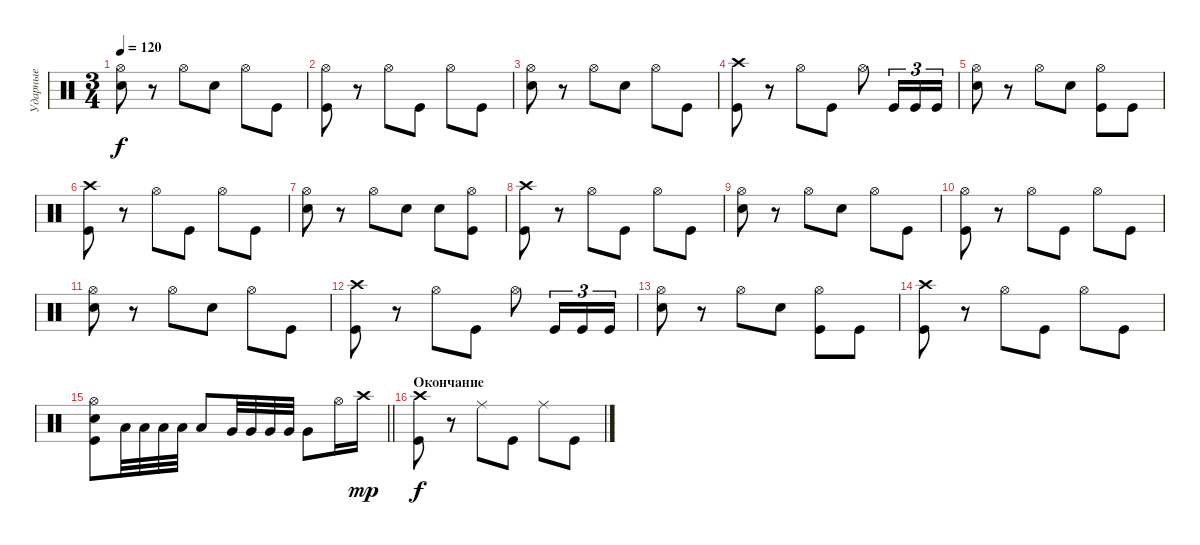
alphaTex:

\track ("Ударные" "Ударные") {instrument percussion}
\staff {score}
\articulation defaults
\ts (3 4)
\tempo 120
\clef neutral
\ks c
("Hi-Hat (open)" "Snare (hit) 2").8{dy f} r.8 "Hi-Hat (open)".8 "Snare (hit) 2".8 "Hi-Hat (open)".8 "Kick (hit)".8 |
("Hi-Hat (open)" "Kick (hit)").8 r.8 "Hi-Hat (open)".8 "Kick (hit)".8 "Hi-Hat (open)".8 "Kick (hit)".8 |
("Hi-Hat (open)" "Snare (hit) 2").8 r.8 "Hi-Hat (open)".8 "Snare (hit) 2".8 "Hi-Hat (open)".8 "Kick (hit)".8 |
("Crash high (hit)" "Kick (hit)").8 r.8 "Hi-Hat (open)".8 "Kick (hit)".8 "Hi-Hat (open)".8 "Kick (hit)".16{tu (3 2)} "Kick (hit)".16{tu (3 2)} "Kick (hit)".16{tu (3 2)} |
("Hi-Hat (open)" "Snare (hit) 2").8 r.8 "Hi-Hat (open)".8 "Snare (hit) 2".8 ("Hi-Hat (open)" "Kick (hit)").8 "Kick (hit)".8 |
("Crash high (hit)" "Kick (hit)").8 r.8 "Hi-Hat (open)".8 "Kick (hit)".8 "Hi-Hat (open)".8 "Kick (hit)".8 |
("Hi-Hat (open)" "Snare (hit) 2").8 r.8 "Hi-Hat (open)".8 "Snare (hit) 2".8 "Snare (hit) 2".8 ("Hi-Hat (open)" "Kick (hit)").8 |
("Crash high (hit)" "Kick (hit)").8 r.8 "Hi-Hat (open)".8 "Kick (hit)".8 "Hi-Hat (open)".8 "Kick (hit)".8 |
("Hi-Hat (open)" "Snare (hit) 2").8 r.8 "Hi-Hat (open)".8 "Snare (hit) 2".8 "Hi-Hat (open)".8 "Kick (hit)".8 |
("Hi-Hat (open)" "Kick (hit)").8 r.8 "Hi-Hat (open)".8 "Kick (hit)".8 "Hi-Hat (open)".8 "Kick (hit)".8 |
("Hi-Hat (open)" "Snare (hit) 2").8 r.8 "Hi-Hat (open)".8 "Snare (hit) 2".8 "Hi-Hat (open)".8 "Kick (hit)".8 |
("Crash high (hit)" "Kick (hit)").8 r.8 "Hi-Hat (open)".8 "Kick (hit)".8 "Hi-Hat (open)".8 "Kick (hit)".16{tu (3 2)} "Kick (hit)".16{tu (3 2)} "Kick (hit)".16{tu (3 2)} |
("Hi-Hat (open)" "Snare (hit) 2").8 r.8 "Hi-Hat (open)".8 "Snare (hit) 2".8 ("Hi-Hat (open)" "Kick (hit)").8 "Kick (hit)".8 |
("Crash high (hit)" "Kick (hit)").8 r.8 "Hi-Hat (open)".8 "Kick (hit)".8 "Hi-Hat (open)".8 "Kick (hit)".8 |
\barLineRight lightlight
("Hi-Hat (open)" "Snare (hit) 2" "Kick (hit)").8 "Low Tom (hit)".32 "Low Tom (hit)".32 "Low Tom (hit)".32 "Low Tom (hit)".32 "Low Tom (hit)".8 "Very Low Tom (hit)".32 "Very Low Tom (hit)".32 "Very Low Tom (hit)".32 "Very Low Tom (hit)".32 "Very Low Tom (hit)".8 "Hi-Hat (open)".16 "Crash high (hit)".16{dy mp} |
\section ("" "Окончание")
("Crash high (hit)" "Kick (hit)").8{dy f} r.8 "Ride (middle)".8 "Kick (hit)".8 "Ride (middle)".8 "Kick (hit)".8
